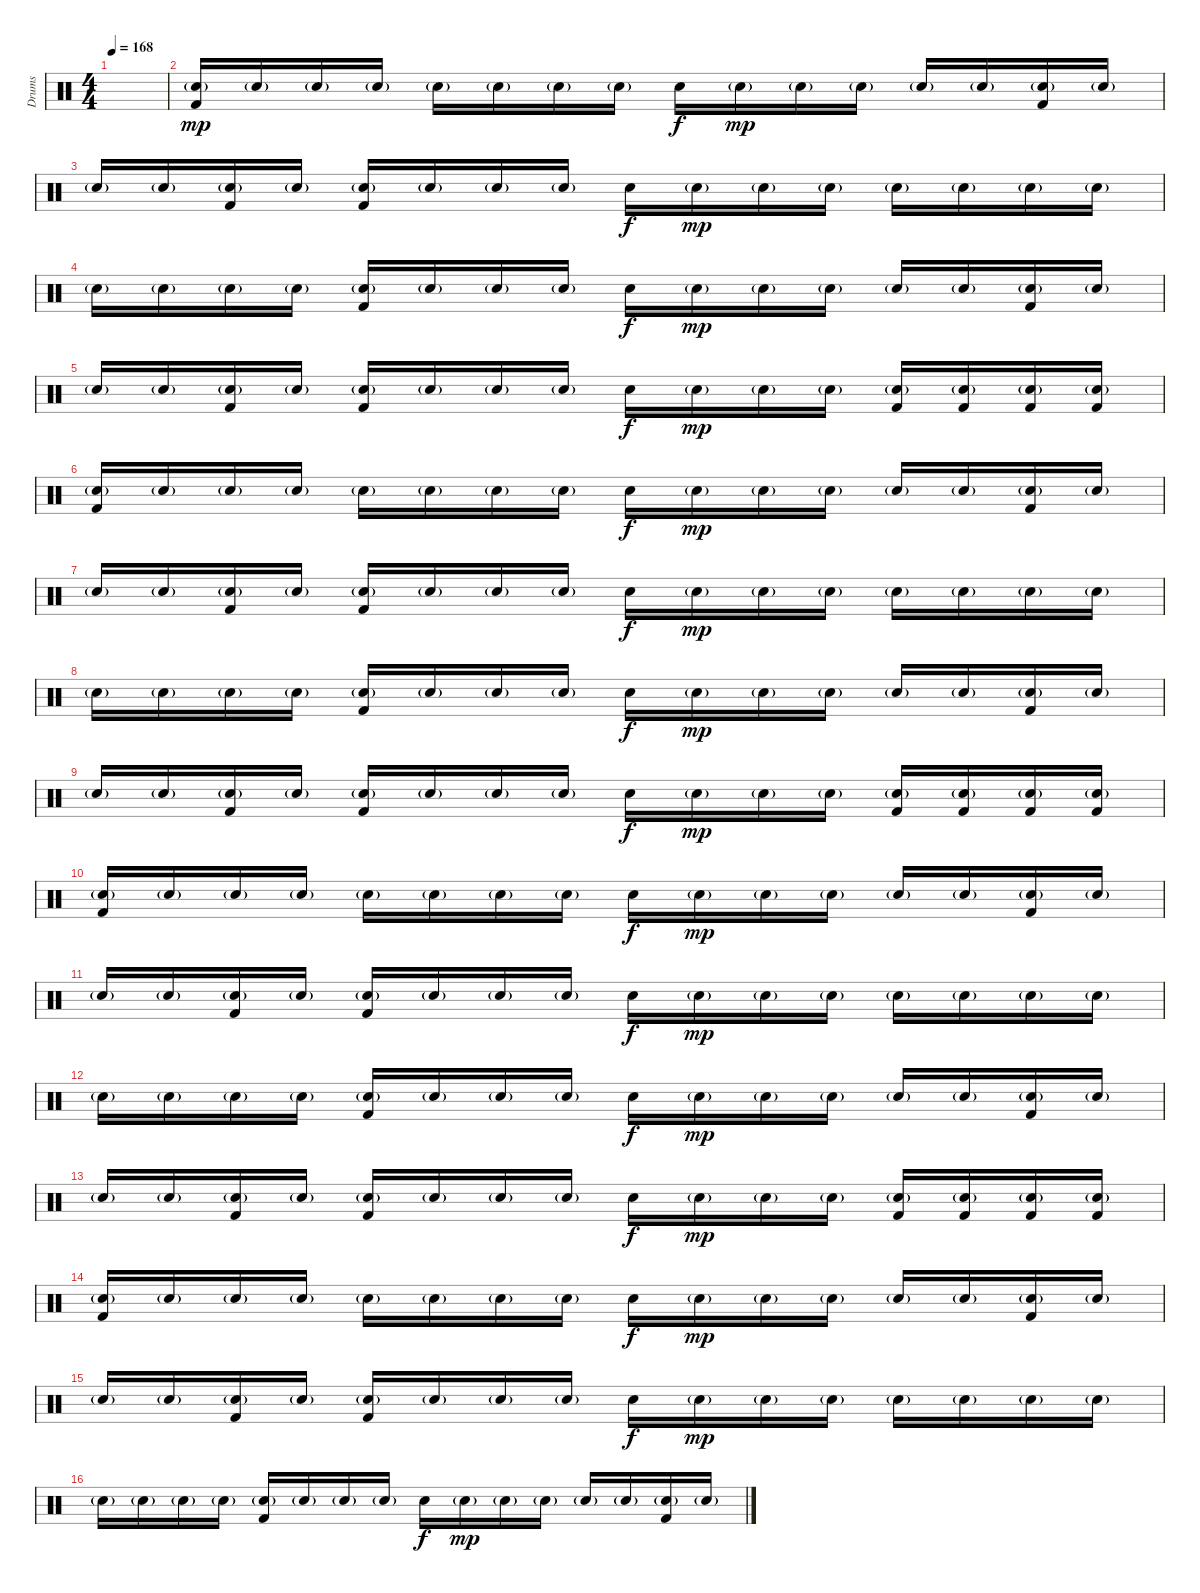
\track ("Drums" "Drums") {instrument percussion}
\staff {score}
\articulation defaults
\ts (4 4)
\tempo 168
\clef neutral
\ks c
|
("Electric Snare (hit)"{g} "Kick (hit) 2").16{dy mp} "Electric Snare (hit)"{g}.16 "Electric Snare (hit)"{g}.16 "Electric Snare (hit)"{g}.16 "Electric Snare (hit)"{g}.16 "Electric Snare (hit)"{g}.16 "Electric Snare (hit)"{g}.16 "Electric Snare (hit)"{g}.16 "Electric Snare (hit)".16{dy f} "Electric Snare (hit)"{g}.16{dy mp} "Electric Snare (hit)"{g}.16 "Electric Snare (hit)"{g}.16 "Electric Snare (hit)"{g}.16 "Electric Snare (hit)"{g}.16 ("Electric Snare (hit)"{g} "Kick (hit) 2").16 "Electric Snare (hit)"{g}.16 |
"Electric Snare (hit)"{g}.16 "Electric Snare (hit)"{g}.16 ("Electric Snare (hit)"{g} "Kick (hit) 2").16 "Electric Snare (hit)"{g}.16 ("Electric Snare (hit)"{g} "Kick (hit) 2").16 "Electric Snare (hit)"{g}.16 "Electric Snare (hit)"{g}.16 "Electric Snare (hit)"{g}.16 "Electric Snare (hit)".16{dy f} "Electric Snare (hit)"{g}.16{dy mp} "Electric Snare (hit)"{g}.16 "Electric Snare (hit)"{g}.16 "Electric Snare (hit)"{g}.16 "Electric Snare (hit)"{g}.16 "Electric Snare (hit)"{g}.16 "Electric Snare (hit)"{g}.16 |
"Electric Snare (hit)"{g}.16 "Electric Snare (hit)"{g}.16 "Electric Snare (hit)"{g}.16 "Electric Snare (hit)"{g}.16 ("Electric Snare (hit)"{g} "Kick (hit) 2").16 "Electric Snare (hit)"{g}.16 "Electric Snare (hit)"{g}.16 "Electric Snare (hit)"{g}.16 "Electric Snare (hit)".16{dy f} "Electric Snare (hit)"{g}.16{dy mp} "Electric Snare (hit)"{g}.16 "Electric Snare (hit)"{g}.16 "Electric Snare (hit)"{g}.16 "Electric Snare (hit)"{g}.16 ("Electric Snare (hit)"{g} "Kick (hit) 2").16 "Electric Snare (hit)"{g}.16 |
"Electric Snare (hit)"{g}.16 "Electric Snare (hit)"{g}.16 ("Electric Snare (hit)"{g} "Kick (hit) 2").16 "Electric Snare (hit)"{g}.16 ("Electric Snare (hit)"{g} "Kick (hit) 2").16 "Electric Snare (hit)"{g}.16 "Electric Snare (hit)"{g}.16 "Electric Snare (hit)"{g}.16 "Electric Snare (hit)".16{dy f} "Electric Snare (hit)"{g}.16{dy mp} "Electric Snare (hit)"{g}.16 "Electric Snare (hit)"{g}.16 ("Electric Snare (hit)"{g} "Kick (hit) 2").16 ("Electric Snare (hit)"{g} "Kick (hit) 2").16 ("Electric Snare (hit)"{g} "Kick (hit) 2").16 ("Electric Snare (hit)"{g} "Kick (hit) 2").16 |
("Electric Snare (hit)"{g} "Kick (hit) 2").16 "Electric Snare (hit)"{g}.16 "Electric Snare (hit)"{g}.16 "Electric Snare (hit)"{g}.16 "Electric Snare (hit)"{g}.16 "Electric Snare (hit)"{g}.16 "Electric Snare (hit)"{g}.16 "Electric Snare (hit)"{g}.16 "Electric Snare (hit)".16{dy f} "Electric Snare (hit)"{g}.16{dy mp} "Electric Snare (hit)"{g}.16 "Electric Snare (hit)"{g}.16 "Electric Snare (hit)"{g}.16 "Electric Snare (hit)"{g}.16 ("Electric Snare (hit)"{g} "Kick (hit) 2").16 "Electric Snare (hit)"{g}.16 |
"Electric Snare (hit)"{g}.16 "Electric Snare (hit)"{g}.16 ("Electric Snare (hit)"{g} "Kick (hit) 2").16 "Electric Snare (hit)"{g}.16 ("Electric Snare (hit)"{g} "Kick (hit) 2").16 "Electric Snare (hit)"{g}.16 "Electric Snare (hit)"{g}.16 "Electric Snare (hit)"{g}.16 "Electric Snare (hit)".16{dy f} "Electric Snare (hit)"{g}.16{dy mp} "Electric Snare (hit)"{g}.16 "Electric Snare (hit)"{g}.16 "Electric Snare (hit)"{g}.16 "Electric Snare (hit)"{g}.16 "Electric Snare (hit)"{g}.16 "Electric Snare (hit)"{g}.16 |
"Electric Snare (hit)"{g}.16 "Electric Snare (hit)"{g}.16 "Electric Snare (hit)"{g}.16 "Electric Snare (hit)"{g}.16 ("Electric Snare (hit)"{g} "Kick (hit) 2").16 "Electric Snare (hit)"{g}.16 "Electric Snare (hit)"{g}.16 "Electric Snare (hit)"{g}.16 "Electric Snare (hit)".16{dy f} "Electric Snare (hit)"{g}.16{dy mp} "Electric Snare (hit)"{g}.16 "Electric Snare (hit)"{g}.16 "Electric Snare (hit)"{g}.16 "Electric Snare (hit)"{g}.16 ("Electric Snare (hit)"{g} "Kick (hit) 2").16 "Electric Snare (hit)"{g}.16 |
"Electric Snare (hit)"{g}.16 "Electric Snare (hit)"{g}.16 ("Electric Snare (hit)"{g} "Kick (hit) 2").16 "Electric Snare (hit)"{g}.16 ("Electric Snare (hit)"{g} "Kick (hit) 2").16 "Electric Snare (hit)"{g}.16 "Electric Snare (hit)"{g}.16 "Electric Snare (hit)"{g}.16 "Electric Snare (hit)".16{dy f} "Electric Snare (hit)"{g}.16{dy mp} "Electric Snare (hit)"{g}.16 "Electric Snare (hit)"{g}.16 ("Electric Snare (hit)"{g} "Kick (hit) 2").16 ("Electric Snare (hit)"{g} "Kick (hit) 2").16 ("Electric Snare (hit)"{g} "Kick (hit) 2").16 ("Electric Snare (hit)"{g} "Kick (hit) 2").16 |
("Electric Snare (hit)"{g} "Kick (hit) 2").16 "Electric Snare (hit)"{g}.16 "Electric Snare (hit)"{g}.16 "Electric Snare (hit)"{g}.16 "Electric Snare (hit)"{g}.16 "Electric Snare (hit)"{g}.16 "Electric Snare (hit)"{g}.16 "Electric Snare (hit)"{g}.16 "Electric Snare (hit)".16{dy f} "Electric Snare (hit)"{g}.16{dy mp} "Electric Snare (hit)"{g}.16 "Electric Snare (hit)"{g}.16 "Electric Snare (hit)"{g}.16 "Electric Snare (hit)"{g}.16 ("Electric Snare (hit)"{g} "Kick (hit) 2").16 "Electric Snare (hit)"{g}.16 |
"Electric Snare (hit)"{g}.16 "Electric Snare (hit)"{g}.16 ("Electric Snare (hit)"{g} "Kick (hit) 2").16 "Electric Snare (hit)"{g}.16 ("Electric Snare (hit)"{g} "Kick (hit) 2").16 "Electric Snare (hit)"{g}.16 "Electric Snare (hit)"{g}.16 "Electric Snare (hit)"{g}.16 "Electric Snare (hit)".16{dy f} "Electric Snare (hit)"{g}.16{dy mp} "Electric Snare (hit)"{g}.16 "Electric Snare (hit)"{g}.16 "Electric Snare (hit)"{g}.16 "Electric Snare (hit)"{g}.16 "Electric Snare (hit)"{g}.16 "Electric Snare (hit)"{g}.16 |
"Electric Snare (hit)"{g}.16 "Electric Snare (hit)"{g}.16 "Electric Snare (hit)"{g}.16 "Electric Snare (hit)"{g}.16 ("Electric Snare (hit)"{g} "Kick (hit) 2").16 "Electric Snare (hit)"{g}.16 "Electric Snare (hit)"{g}.16 "Electric Snare (hit)"{g}.16 "Electric Snare (hit)".16{dy f} "Electric Snare (hit)"{g}.16{dy mp} "Electric Snare (hit)"{g}.16 "Electric Snare (hit)"{g}.16 "Electric Snare (hit)"{g}.16 "Electric Snare (hit)"{g}.16 ("Electric Snare (hit)"{g} "Kick (hit) 2").16 "Electric Snare (hit)"{g}.16 |
"Electric Snare (hit)"{g}.16 "Electric Snare (hit)"{g}.16 ("Electric Snare (hit)"{g} "Kick (hit) 2").16 "Electric Snare (hit)"{g}.16 ("Electric Snare (hit)"{g} "Kick (hit) 2").16 "Electric Snare (hit)"{g}.16 "Electric Snare (hit)"{g}.16 "Electric Snare (hit)"{g}.16 "Electric Snare (hit)".16{dy f} "Electric Snare (hit)"{g}.16{dy mp} "Electric Snare (hit)"{g}.16 "Electric Snare (hit)"{g}.16 ("Electric Snare (hit)"{g} "Kick (hit) 2").16 ("Electric Snare (hit)"{g} "Kick (hit) 2").16 ("Electric Snare (hit)"{g} "Kick (hit) 2").16 ("Electric Snare (hit)"{g} "Kick (hit) 2").16 |
("Electric Snare (hit)"{g} "Kick (hit) 2").16 "Electric Snare (hit)"{g}.16 "Electric Snare (hit)"{g}.16 "Electric Snare (hit)"{g}.16 "Electric Snare (hit)"{g}.16 "Electric Snare (hit)"{g}.16 "Electric Snare (hit)"{g}.16 "Electric Snare (hit)"{g}.16 "Electric Snare (hit)".16{dy f} "Electric Snare (hit)"{g}.16{dy mp} "Electric Snare (hit)"{g}.16 "Electric Snare (hit)"{g}.16 "Electric Snare (hit)"{g}.16 "Electric Snare (hit)"{g}.16 ("Electric Snare (hit)"{g} "Kick (hit) 2").16 "Electric Snare (hit)"{g}.16 |
"Electric Snare (hit)"{g}.16 "Electric Snare (hit)"{g}.16 ("Electric Snare (hit)"{g} "Kick (hit) 2").16 "Electric Snare (hit)"{g}.16 ("Electric Snare (hit)"{g} "Kick (hit) 2").16 "Electric Snare (hit)"{g}.16 "Electric Snare (hit)"{g}.16 "Electric Snare (hit)"{g}.16 "Electric Snare (hit)".16{dy f} "Electric Snare (hit)"{g}.16{dy mp} "Electric Snare (hit)"{g}.16 "Electric Snare (hit)"{g}.16 "Electric Snare (hit)"{g}.16 "Electric Snare (hit)"{g}.16 "Electric Snare (hit)"{g}.16 "Electric Snare (hit)"{g}.16 |
"Electric Snare (hit)"{g}.16 "Electric Snare (hit)"{g}.16 "Electric Snare (hit)"{g}.16 "Electric Snare (hit)"{g}.16 ("Electric Snare (hit)"{g} "Kick (hit) 2").16 "Electric Snare (hit)"{g}.16 "Electric Snare (hit)"{g}.16 "Electric Snare (hit)"{g}.16 "Electric Snare (hit)".16{dy f} "Electric Snare (hit)"{g}.16{dy mp} "Electric Snare (hit)"{g}.16 "Electric Snare (hit)"{g}.16 "Electric Snare (hit)"{g}.16 "Electric Snare (hit)"{g}.16 ("Electric Snare (hit)"{g} "Kick (hit) 2").16 "Electric Snare (hit)"{g}.16
